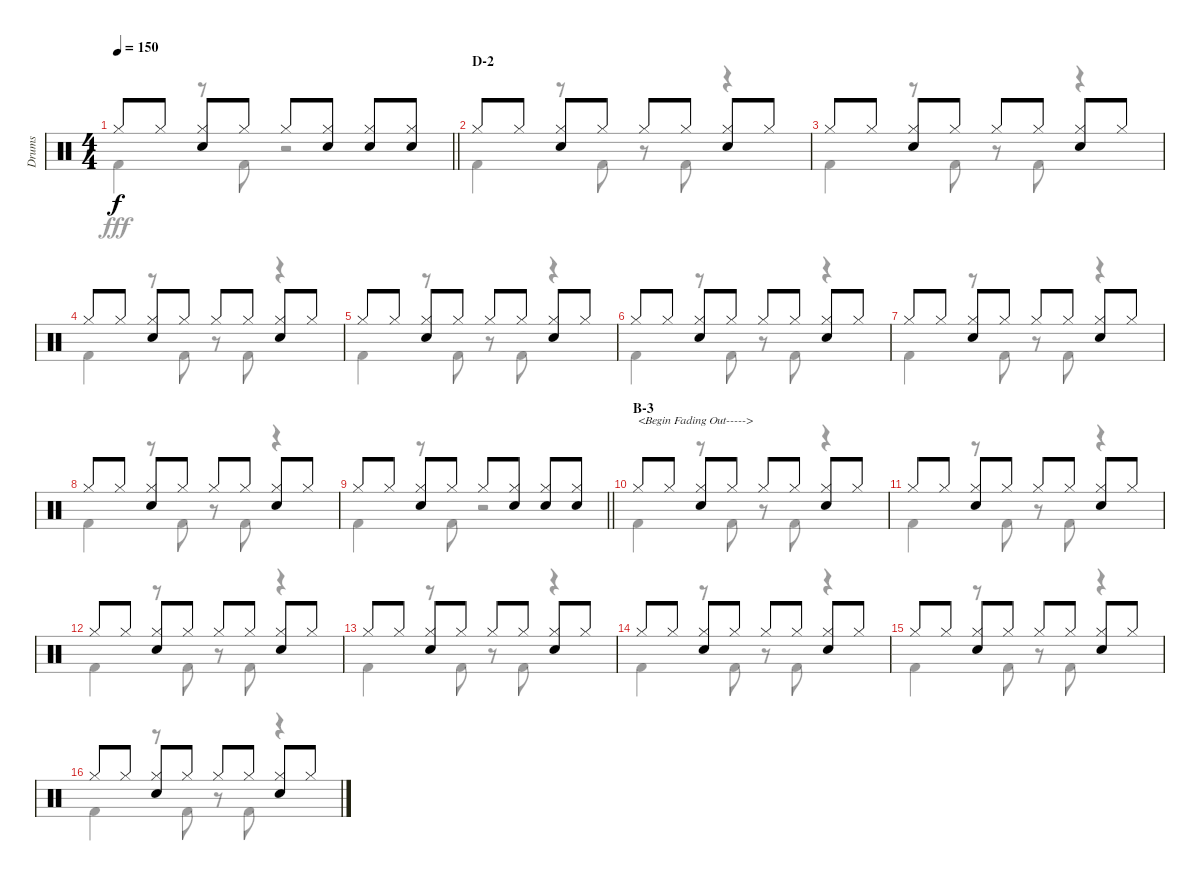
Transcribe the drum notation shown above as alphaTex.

\track ("Drums" "Drums") {instrument percussion}
\staff {score}
\articulation defaults
\voice
\ts (4 4)
\tempo 150
\clef neutral
\barLineRight lightlight
\ks c "Hi-Hat (closed)".8{dy f} "Hi-Hat (closed)".8
("Hi-Hat (closed)" "Electric Snare (hit)").8 "Hi-Hat (closed)".8 "Hi-Hat (closed)".8 ("Hi-Hat (closed)" "Electric Snare (hit)").8 ("Hi-Hat (closed)" "Electric Snare (hit)").8 ("Hi-Hat (closed)" "Electric Snare (hit)").8 |
\section ("" "D-2")
"Hi-Hat (closed)".8 "Hi-Hat (closed)".8 ("Hi-Hat (closed)" "Electric Snare (hit)").8 "Hi-Hat (closed)".8 "Hi-Hat (closed)".8 "Hi-Hat (closed)".8 ("Hi-Hat (closed)" "Electric Snare (hit)").8 "Hi-Hat (closed)".8 |
"Hi-Hat (closed)".8 "Hi-Hat (closed)".8 ("Hi-Hat (closed)" "Electric Snare (hit)").8 "Hi-Hat (closed)".8 "Hi-Hat (closed)".8 "Hi-Hat (closed)".8 ("Hi-Hat (closed)" "Electric Snare (hit)").8 "Hi-Hat (closed)".8 |
"Hi-Hat (closed)".8 "Hi-Hat (closed)".8 ("Hi-Hat (closed)" "Electric Snare (hit)").8 "Hi-Hat (closed)".8 "Hi-Hat (closed)".8 "Hi-Hat (closed)".8 ("Hi-Hat (closed)" "Electric Snare (hit)").8 "Hi-Hat (closed)".8 |
"Hi-Hat (closed)".8 "Hi-Hat (closed)".8 ("Hi-Hat (closed)" "Electric Snare (hit)").8 "Hi-Hat (closed)".8 "Hi-Hat (closed)".8 "Hi-Hat (closed)".8 ("Hi-Hat (closed)" "Electric Snare (hit)").8 "Hi-Hat (closed)".8 |
"Hi-Hat (closed)".8 "Hi-Hat (closed)".8 ("Hi-Hat (closed)" "Electric Snare (hit)").8 "Hi-Hat (closed)".8 "Hi-Hat (closed)".8 "Hi-Hat (closed)".8 ("Hi-Hat (closed)" "Electric Snare (hit)").8 "Hi-Hat (closed)".8 |
"Hi-Hat (closed)".8 "Hi-Hat (closed)".8 ("Hi-Hat (closed)" "Electric Snare (hit)").8 "Hi-Hat (closed)".8 "Hi-Hat (closed)".8 "Hi-Hat (closed)".8 ("Hi-Hat (closed)" "Electric Snare (hit)").8 "Hi-Hat (closed)".8 |
"Hi-Hat (closed)".8 "Hi-Hat (closed)".8 ("Hi-Hat (closed)" "Electric Snare (hit)").8 "Hi-Hat (closed)".8 "Hi-Hat (closed)".8 "Hi-Hat (closed)".8 ("Hi-Hat (closed)" "Electric Snare (hit)").8 "Hi-Hat (closed)".8 |
\barLineRight lightlight "Hi-Hat (closed)".8 "Hi-Hat (closed)".8
("Hi-Hat (closed)" "Electric Snare (hit)").8 "Hi-Hat (closed)".8 "Hi-Hat (closed)".8 ("Hi-Hat (closed)" "Electric Snare (hit)").8 ("Hi-Hat (closed)" "Electric Snare (hit)").8 ("Hi-Hat (closed)" "Electric Snare (hit)").8 |
\section ("" "B-3")
"Hi-Hat (closed)".8{txt "<Begin Fading Out----->"} "Hi-Hat (closed)".8 ("Hi-Hat (closed)" "Electric Snare (hit)").8 "Hi-Hat (closed)".8 "Hi-Hat (closed)".8 "Hi-Hat (closed)".8 ("Hi-Hat (closed)" "Electric Snare (hit)").8 "Hi-Hat (closed)".8 |
"Hi-Hat (closed)".8 "Hi-Hat (closed)".8 ("Hi-Hat (closed)" "Electric Snare (hit)").8 "Hi-Hat (closed)".8 "Hi-Hat (closed)".8 "Hi-Hat (closed)".8 ("Hi-Hat (closed)" "Electric Snare (hit)").8 "Hi-Hat (closed)".8 |
"Hi-Hat (closed)".8 "Hi-Hat (closed)".8 ("Hi-Hat (closed)" "Electric Snare (hit)").8 "Hi-Hat (closed)".8 "Hi-Hat (closed)".8 "Hi-Hat (closed)".8 ("Hi-Hat (closed)" "Electric Snare (hit)").8 "Hi-Hat (closed)".8 |
"Hi-Hat (closed)".8 "Hi-Hat (closed)".8 ("Hi-Hat (closed)" "Electric Snare (hit)").8 "Hi-Hat (closed)".8 "Hi-Hat (closed)".8 "Hi-Hat (closed)".8 ("Hi-Hat (closed)" "Electric Snare (hit)").8 "Hi-Hat (closed)".8 |
"Hi-Hat (closed)".8 "Hi-Hat (closed)".8 ("Hi-Hat (closed)" "Electric Snare (hit)").8 "Hi-Hat (closed)".8 "Hi-Hat (closed)".8 "Hi-Hat (closed)".8 ("Hi-Hat (closed)" "Electric Snare (hit)").8 "Hi-Hat (closed)".8 |
"Hi-Hat (closed)".8 "Hi-Hat (closed)".8 ("Hi-Hat (closed)" "Electric Snare (hit)").8 "Hi-Hat (closed)".8 "Hi-Hat (closed)".8 "Hi-Hat (closed)".8 ("Hi-Hat (closed)" "Electric Snare (hit)").8 "Hi-Hat (closed)".8 |
"Hi-Hat (closed)".8 "Hi-Hat (closed)".8 ("Hi-Hat (closed)" "Electric Snare (hit)").8 "Hi-Hat (closed)".8 "Hi-Hat (closed)".8 "Hi-Hat (closed)".8 ("Hi-Hat (closed)" "Electric Snare (hit)").8 "Hi-Hat (closed)".8
\voice
\clef neutral
\ottava regular
\simile none
\barLineRight lightlight
\ks c "Kick (hit) 2".4{dy fff}
r.8 "Kick (hit) 2".8 r.2 |
"Kick (hit) 2".4 r.8 "Kick (hit) 2".8 r.8 "Kick (hit) 2".8 r.4 |
"Kick (hit) 2".4 r.8 "Kick (hit) 2".8 r.8 "Kick (hit) 2".8 r.4 |
"Kick (hit) 2".4 r.8 "Kick (hit) 2".8 r.8 "Kick (hit) 2".8 r.4 |
"Kick (hit) 2".4 r.8 "Kick (hit) 2".8 r.8 "Kick (hit) 2".8 r.4 |
"Kick (hit) 2".4 r.8 "Kick (hit) 2".8 r.8 "Kick (hit) 2".8 r.4 |
"Kick (hit) 2".4 r.8 "Kick (hit) 2".8 r.8 "Kick (hit) 2".8 r.4 |
"Kick (hit) 2".4 r.8 "Kick (hit) 2".8 r.8 "Kick (hit) 2".8 r.4 |
\barLineRight lightlight "Kick (hit) 2".4
r.8 "Kick (hit) 2".8 r.2 |
"Kick (hit) 2".4 r.8 "Kick (hit) 2".8 r.8 "Kick (hit) 2".8 r.4 |
"Kick (hit) 2".4 r.8 "Kick (hit) 2".8 r.8 "Kick (hit) 2".8 r.4 |
"Kick (hit) 2".4 r.8 "Kick (hit) 2".8 r.8 "Kick (hit) 2".8 r.4 |
"Kick (hit) 2".4 r.8 "Kick (hit) 2".8 r.8 "Kick (hit) 2".8 r.4 |
"Kick (hit) 2".4 r.8 "Kick (hit) 2".8 r.8 "Kick (hit) 2".8 r.4 |
"Kick (hit) 2".4 r.8 "Kick (hit) 2".8 r.8 "Kick (hit) 2".8 r.4 |
"Kick (hit) 2".4 r.8 "Kick (hit) 2".8 r.8 "Kick (hit) 2".8 r.4
